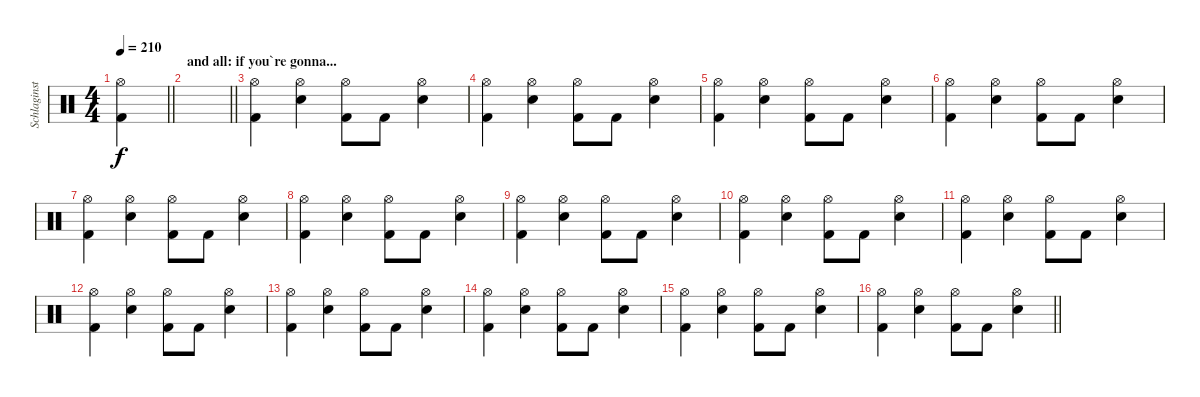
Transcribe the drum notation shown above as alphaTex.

\track ("Schlaginstrumente - Auswahl" "Schlaginst") {instrument percussion}
\staff {score}
\articulation defaults
\ts (4 4)
\tempo 210
\clef neutral
\barLineRight lightlight
\ks c
("Hi-Hat (open)" "Kick (hit) 2").4{dy f} |
\section ("" "and all: if you`re gonna...")
\barLineRight lightlight
|
("Hi-Hat (open)" "Kick (hit) 2").4 ("Hi-Hat (open)" "Electric Snare (hit)").4 ("Hi-Hat (open)" "Kick (hit) 2").8 "Kick (hit) 2".8 ("Hi-Hat (open)" "Electric Snare (hit)").4 |
("Hi-Hat (open)" "Kick (hit) 2").4 ("Hi-Hat (open)" "Electric Snare (hit)").4 ("Hi-Hat (open)" "Kick (hit) 2").8 "Kick (hit) 2".8 ("Hi-Hat (open)" "Electric Snare (hit)").4 |
("Hi-Hat (open)" "Kick (hit) 2").4 ("Hi-Hat (open)" "Electric Snare (hit)").4 ("Hi-Hat (open)" "Kick (hit) 2").8 "Kick (hit) 2".8 ("Hi-Hat (open)" "Electric Snare (hit)").4 |
("Hi-Hat (open)" "Kick (hit) 2").4 ("Hi-Hat (open)" "Electric Snare (hit)").4 ("Hi-Hat (open)" "Kick (hit) 2").8 "Kick (hit) 2".8 ("Hi-Hat (open)" "Electric Snare (hit)").4 |
("Hi-Hat (open)" "Kick (hit) 2").4 ("Hi-Hat (open)" "Electric Snare (hit)").4 ("Hi-Hat (open)" "Kick (hit) 2").8 "Kick (hit) 2".8 ("Hi-Hat (open)" "Electric Snare (hit)").4 |
("Hi-Hat (open)" "Kick (hit) 2").4 ("Hi-Hat (open)" "Electric Snare (hit)").4 ("Hi-Hat (open)" "Kick (hit) 2").8 "Kick (hit) 2".8 ("Hi-Hat (open)" "Electric Snare (hit)").4 |
("Hi-Hat (open)" "Kick (hit) 2").4 ("Hi-Hat (open)" "Electric Snare (hit)").4 ("Hi-Hat (open)" "Kick (hit) 2").8 "Kick (hit) 2".8 ("Hi-Hat (open)" "Electric Snare (hit)").4 |
("Hi-Hat (open)" "Kick (hit) 2").4 ("Hi-Hat (open)" "Electric Snare (hit)").4 ("Hi-Hat (open)" "Kick (hit) 2").8 "Kick (hit) 2".8 ("Hi-Hat (open)" "Electric Snare (hit)").4 |
("Hi-Hat (open)" "Kick (hit) 2").4 ("Hi-Hat (open)" "Electric Snare (hit)").4 ("Hi-Hat (open)" "Kick (hit) 2").8 "Kick (hit) 2".8 ("Hi-Hat (open)" "Electric Snare (hit)").4 |
("Hi-Hat (open)" "Kick (hit) 2").4 ("Hi-Hat (open)" "Electric Snare (hit)").4 ("Hi-Hat (open)" "Kick (hit) 2").8 "Kick (hit) 2".8 ("Hi-Hat (open)" "Electric Snare (hit)").4 |
("Hi-Hat (open)" "Kick (hit) 2").4 ("Hi-Hat (open)" "Electric Snare (hit)").4 ("Hi-Hat (open)" "Kick (hit) 2").8 "Kick (hit) 2".8 ("Hi-Hat (open)" "Electric Snare (hit)").4 |
("Hi-Hat (open)" "Kick (hit) 2").4 ("Hi-Hat (open)" "Electric Snare (hit)").4 ("Hi-Hat (open)" "Kick (hit) 2").8 "Kick (hit) 2".8 ("Hi-Hat (open)" "Electric Snare (hit)").4 |
("Hi-Hat (open)" "Kick (hit) 2").4 ("Hi-Hat (open)" "Electric Snare (hit)").4 ("Hi-Hat (open)" "Kick (hit) 2").8 "Kick (hit) 2".8 ("Hi-Hat (open)" "Electric Snare (hit)").4 |
\barLineRight lightlight
("Hi-Hat (open)" "Kick (hit) 2").4 ("Hi-Hat (open)" "Electric Snare (hit)").4 ("Hi-Hat (open)" "Kick (hit) 2").8 "Kick (hit) 2".8 ("Hi-Hat (open)" "Electric Snare (hit)").4
